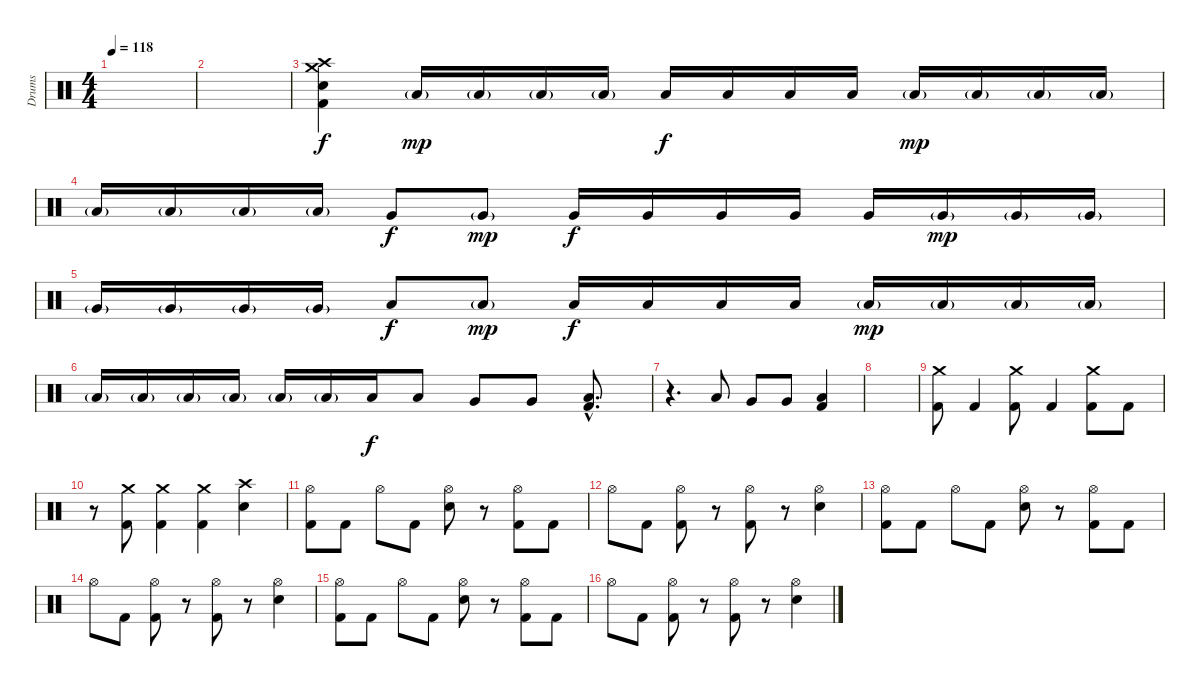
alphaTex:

\track ("Drums" "Drums") {instrument percussion}
\staff {score}
\articulation defaults
\ts (4 4)
\tempo 118
\clef neutral
\ks c
|
|
("Crash medium (hit)" "Crash high (hit)" "Electric Snare (hit)" "Kick (hit) 2").4 "Low Tom (hit)"{g}.16{dy mp} "Low Tom (hit)"{g}.16 "Low Tom (hit)"{g}.16 "Low Tom (hit)"{g}.16 "Low Tom (hit)".16{dy f} "Low Tom (hit)".16 "Low Tom (hit)".16 "Low Tom (hit)".16 "Low Tom (hit)"{g}.16{dy mp} "Low Tom (hit)"{g}.16 "Low Tom (hit)"{g}.16 "Low Tom (hit)"{g}.16 |
"Low Tom (hit)"{g}.16 "Low Tom (hit)"{g}.16 "Low Tom (hit)"{g}.16 "Low Tom (hit)"{g}.16 "Very Low Tom (hit)".8{dy f} "Very Low Tom (hit)"{g}.8{dy mp} "Very Low Tom (hit)".16{dy f} "Very Low Tom (hit)".16 "Very Low Tom (hit)".16 "Very Low Tom (hit)".16 "Very Low Tom (hit)".16 "Very Low Tom (hit)"{g}.16{dy mp} "Very Low Tom (hit)"{g}.16 "Very Low Tom (hit)"{g}.16 |
"Very Low Tom (hit)"{g}.16 "Very Low Tom (hit)"{g}.16 "Very Low Tom (hit)"{g}.16 "Very Low Tom (hit)"{g}.16 "Low Floor Tom (hit)".8{dy f} "Low Floor Tom (hit)"{g}.8{dy mp} "Low Floor Tom (hit)".16{dy f} "Low Floor Tom (hit)".16 "Low Floor Tom (hit)".16 "Low Floor Tom (hit)".16 "Low Floor Tom (hit)"{g}.16{dy mp} "Low Floor Tom (hit)"{g}.16 "Low Floor Tom (hit)"{g}.16 "Low Floor Tom (hit)"{g}.16 |
"Low Floor Tom (hit)"{g}.16 "Low Floor Tom (hit)"{g}.16 "Low Floor Tom (hit)"{g}.16 "Low Floor Tom (hit)"{g}.16 "Low Floor Tom (hit)"{g}.16 "Low Floor Tom (hit)"{g}.16 "Low Floor Tom (hit)".16{dy f} "Low Tom (hit)".8 "Very Low Tom (hit)".8 "Very Low Tom (hit)".8 ("Kick (hit) 2"{hac} "Low Floor Tom (hit)"{hac}).8{d} |
r.4{d} "Low Tom (hit)".8 "Very Low Tom (hit)".8 "Very Low Tom (hit)".8 ("Kick (hit) 2" "Low Floor Tom (hit)").4 |
|
("Crash medium (hit)" "Kick (hit) 2").8 "Kick (hit) 2".4 ("Crash medium (hit)" "Kick (hit) 2").8 "Kick (hit) 2".4 ("Crash medium (hit)" "Kick (hit) 2").8 "Kick (hit) 2".8 |
r.8 ("Crash medium (hit)" "Kick (hit) 2").8 ("Crash medium (hit)" "Kick (hit) 2").4 ("Crash medium (hit)" "Kick (hit) 2").4 ("Crash high (hit)" "Electric Snare (hit)").4 |
("Hi-Hat (open)" "Kick (hit) 2").8 "Kick (hit) 2".8 "Hi-Hat (open)".8 "Kick (hit) 2".8 ("Hi-Hat (open)" "Electric Snare (hit)").8 r.8 ("Hi-Hat (open)" "Kick (hit) 2").8 "Kick (hit) 2".8 |
"Hi-Hat (open)".8 "Kick (hit) 2".8 ("Hi-Hat (open)" "Kick (hit) 2").8 r.8 ("Hi-Hat (open)" "Kick (hit) 2").8 r.8 ("Hi-Hat (open)" "Electric Snare (hit)").4 |
("Hi-Hat (open)" "Kick (hit) 2").8 "Kick (hit) 2".8 "Hi-Hat (open)".8 "Kick (hit) 2".8 ("Hi-Hat (open)" "Electric Snare (hit)").8 r.8 ("Hi-Hat (open)" "Kick (hit) 2").8 "Kick (hit) 2".8 |
"Hi-Hat (open)".8 "Kick (hit) 2".8 ("Hi-Hat (open)" "Kick (hit) 2").8 r.8 ("Hi-Hat (open)" "Kick (hit) 2").8 r.8 ("Hi-Hat (open)" "Electric Snare (hit)").4 |
("Hi-Hat (open)" "Kick (hit) 2").8 "Kick (hit) 2".8 "Hi-Hat (open)".8 "Kick (hit) 2".8 ("Hi-Hat (open)" "Electric Snare (hit)").8 r.8 ("Hi-Hat (open)" "Kick (hit) 2").8 "Kick (hit) 2".8 |
"Hi-Hat (open)".8 "Kick (hit) 2".8 ("Hi-Hat (open)" "Kick (hit) 2").8 r.8 ("Hi-Hat (open)" "Kick (hit) 2").8 r.8 ("Hi-Hat (open)" "Electric Snare (hit)").4
